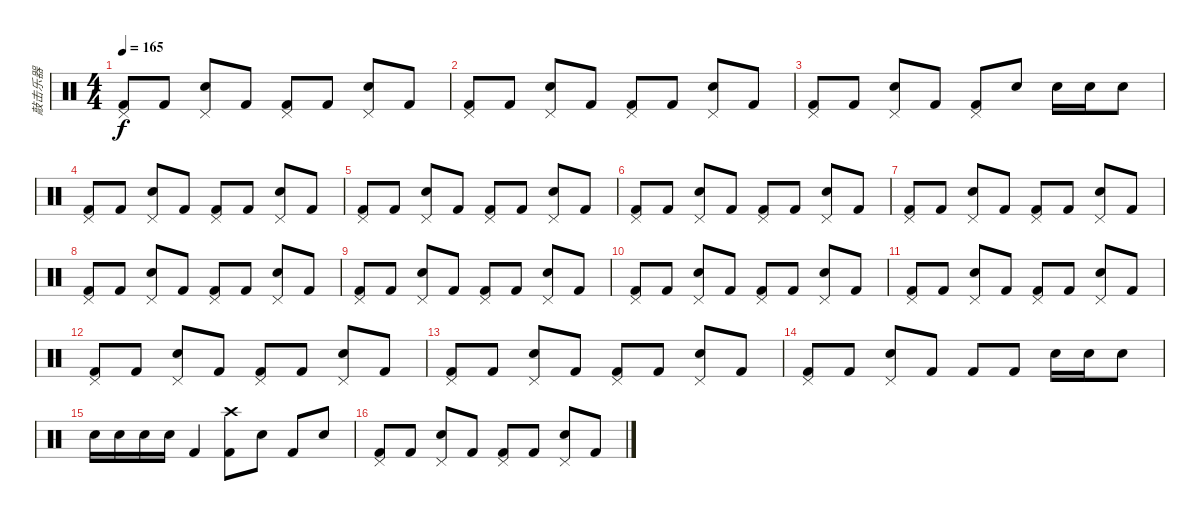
\track ("敲击乐器" "敲击乐器") {instrument percussion}
\staff {score}
\articulation defaults
\ts (4 4)
\tempo 165
\clef neutral
\ks c
("Kick (hit) 2" "Pedal Hi-Hat (hit)").8{dy f} "Kick (hit) 2".8 ("Snare (hit) 2" "Pedal Hi-Hat (hit)").8 "Kick (hit) 2".8 ("Kick (hit) 2" "Pedal Hi-Hat (hit)").8 "Kick (hit) 2".8 ("Snare (hit) 2" "Pedal Hi-Hat (hit)").8 "Kick (hit) 2".8 |
("Kick (hit) 2" "Pedal Hi-Hat (hit)").8 "Kick (hit) 2".8 ("Snare (hit) 2" "Pedal Hi-Hat (hit)").8 "Kick (hit) 2".8 ("Kick (hit) 2" "Pedal Hi-Hat (hit)").8 "Kick (hit) 2".8 ("Snare (hit) 2" "Pedal Hi-Hat (hit)").8 "Kick (hit) 2".8 |
("Kick (hit) 2" "Pedal Hi-Hat (hit)").8 "Kick (hit) 2".8 ("Snare (hit) 2" "Pedal Hi-Hat (hit)").8 "Kick (hit) 2".8 ("Kick (hit) 2" "Pedal Hi-Hat (hit)").8 "Snare (hit) 2".8 "Snare (hit) 2".16 "Snare (hit) 2".16 "Snare (hit) 2".8 |
("Kick (hit) 2" "Pedal Hi-Hat (hit)").8 "Kick (hit) 2".8 ("Snare (hit) 2" "Pedal Hi-Hat (hit)").8 "Kick (hit) 2".8 ("Kick (hit) 2" "Pedal Hi-Hat (hit)").8 "Kick (hit) 2".8 ("Snare (hit) 2" "Pedal Hi-Hat (hit)").8 "Kick (hit) 2".8 |
("Kick (hit) 2" "Pedal Hi-Hat (hit)").8 "Kick (hit) 2".8 ("Snare (hit) 2" "Pedal Hi-Hat (hit)").8 "Kick (hit) 2".8 ("Kick (hit) 2" "Pedal Hi-Hat (hit)").8 "Kick (hit) 2".8 ("Snare (hit) 2" "Pedal Hi-Hat (hit)").8 "Kick (hit) 2".8 |
("Kick (hit) 2" "Pedal Hi-Hat (hit)").8 "Kick (hit) 2".8 ("Snare (hit) 2" "Pedal Hi-Hat (hit)").8 "Kick (hit) 2".8 ("Kick (hit) 2" "Pedal Hi-Hat (hit)").8 "Kick (hit) 2".8 ("Snare (hit) 2" "Pedal Hi-Hat (hit)").8 "Kick (hit) 2".8 |
("Kick (hit) 2" "Pedal Hi-Hat (hit)").8 "Kick (hit) 2".8 ("Snare (hit) 2" "Pedal Hi-Hat (hit)").8 "Kick (hit) 2".8 ("Kick (hit) 2" "Pedal Hi-Hat (hit)").8 "Kick (hit) 2".8 ("Snare (hit) 2" "Pedal Hi-Hat (hit)").8 "Kick (hit) 2".8 |
("Kick (hit) 2" "Pedal Hi-Hat (hit)").8 "Kick (hit) 2".8 ("Snare (hit) 2" "Pedal Hi-Hat (hit)").8 "Kick (hit) 2".8 ("Kick (hit) 2" "Pedal Hi-Hat (hit)").8 "Kick (hit) 2".8 ("Snare (hit) 2" "Pedal Hi-Hat (hit)").8 "Kick (hit) 2".8 |
("Kick (hit) 2" "Pedal Hi-Hat (hit)").8 "Kick (hit) 2".8 ("Snare (hit) 2" "Pedal Hi-Hat (hit)").8 "Kick (hit) 2".8 ("Kick (hit) 2" "Pedal Hi-Hat (hit)").8 "Kick (hit) 2".8 ("Snare (hit) 2" "Pedal Hi-Hat (hit)").8 "Kick (hit) 2".8 |
("Kick (hit) 2" "Pedal Hi-Hat (hit)").8 "Kick (hit) 2".8 ("Snare (hit) 2" "Pedal Hi-Hat (hit)").8 "Kick (hit) 2".8 ("Kick (hit) 2" "Pedal Hi-Hat (hit)").8 "Kick (hit) 2".8 ("Snare (hit) 2" "Pedal Hi-Hat (hit)").8 "Kick (hit) 2".8 |
("Kick (hit) 2" "Pedal Hi-Hat (hit)").8 "Kick (hit) 2".8 ("Snare (hit) 2" "Pedal Hi-Hat (hit)").8 "Kick (hit) 2".8 ("Kick (hit) 2" "Pedal Hi-Hat (hit)").8 "Kick (hit) 2".8 ("Snare (hit) 2" "Pedal Hi-Hat (hit)").8 "Kick (hit) 2".8 |
("Kick (hit) 2" "Pedal Hi-Hat (hit)").8 "Kick (hit) 2".8 ("Snare (hit) 2" "Pedal Hi-Hat (hit)").8 "Kick (hit) 2".8 ("Kick (hit) 2" "Pedal Hi-Hat (hit)").8 "Kick (hit) 2".8 ("Snare (hit) 2" "Pedal Hi-Hat (hit)").8 "Kick (hit) 2".8 |
("Kick (hit) 2" "Pedal Hi-Hat (hit)").8 "Kick (hit) 2".8 ("Snare (hit) 2" "Pedal Hi-Hat (hit)").8 "Kick (hit) 2".8 ("Kick (hit) 2" "Pedal Hi-Hat (hit)").8 "Kick (hit) 2".8 ("Snare (hit) 2" "Pedal Hi-Hat (hit)").8 "Kick (hit) 2".8 |
("Kick (hit) 2" "Pedal Hi-Hat (hit)").8 "Kick (hit) 2".8 ("Snare (hit) 2" "Pedal Hi-Hat (hit)").8 "Kick (hit) 2".8 "Kick (hit) 2".8 "Kick (hit) 2".8 "Snare (hit) 2".16 "Snare (hit) 2".16 "Snare (hit) 2".8 |
"Snare (hit) 2".16 "Snare (hit) 2".16 "Snare (hit) 2".16 "Snare (hit) 2".16 "Kick (hit) 2".4 ("Kick (hit) 2" "Crash high (hit)").8 "Snare (hit) 2".8 "Kick (hit) 2".8 "Snare (hit) 2".8 |
("Kick (hit) 2" "Pedal Hi-Hat (hit)").8 "Kick (hit) 2".8 ("Snare (hit) 2" "Pedal Hi-Hat (hit)").8 "Kick (hit) 2".8 ("Kick (hit) 2" "Pedal Hi-Hat (hit)").8 "Kick (hit) 2".8 ("Snare (hit) 2" "Pedal Hi-Hat (hit)").8 "Kick (hit) 2".8
